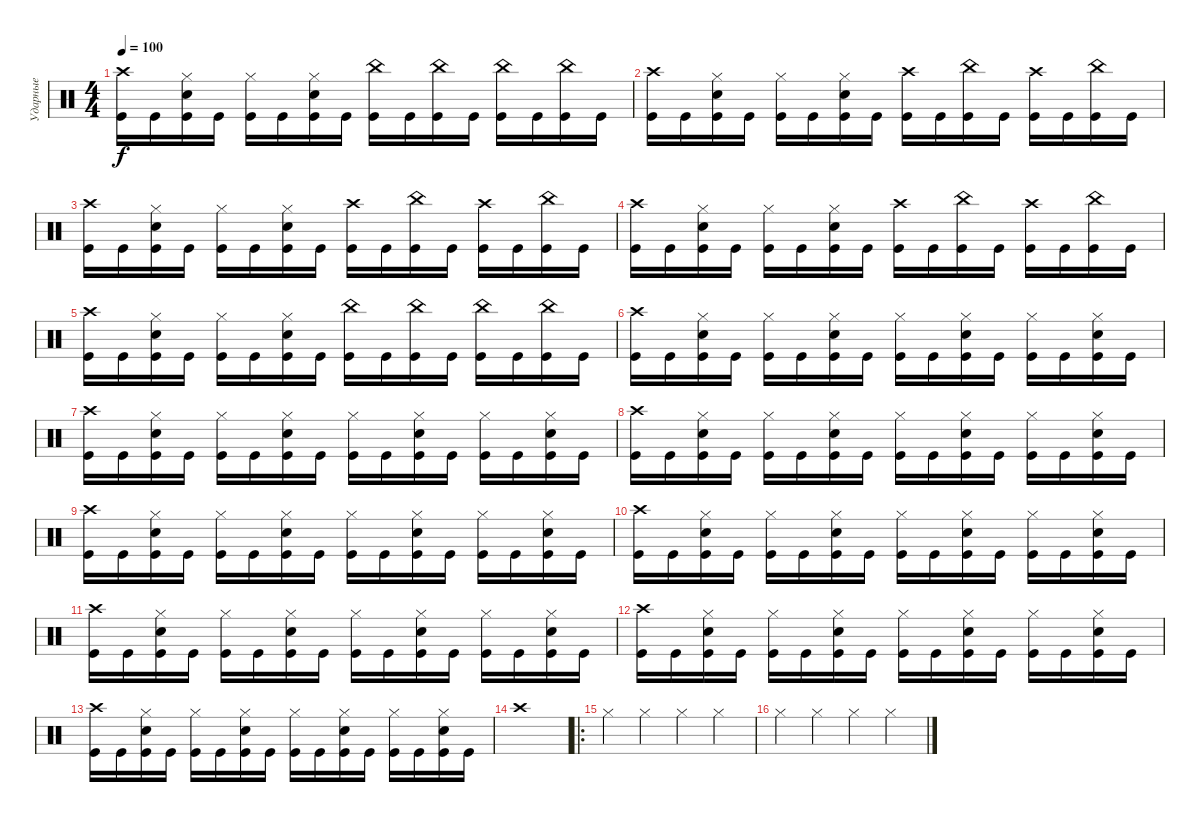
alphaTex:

\track ("Ударные" "Ударные") {instrument percussion}
\staff {score}
\articulation defaults
\ts (4 4)
\tempo 100
\clef neutral
\ks c
("Kick (hit)" "Crash high (hit)").16{dy f} "Kick (hit)".16 ("Kick (hit)" "Hi-Hat (closed)" "Snare (hit) 2").16 "Kick (hit)".16 ("Kick (hit)" "Hi-Hat (closed)").16 "Kick (hit)".16 ("Kick (hit)" "Hi-Hat (closed)" "Snare (hit) 2").16 "Kick (hit)".16 ("Kick (hit)" "China (hit)").16 "Kick (hit)".16 ("Kick (hit)" "China (hit)").16 "Kick (hit)".16 ("Kick (hit)" "China (hit)").16 "Kick (hit)".16 ("Kick (hit)" "China (hit)").16 "Kick (hit)".16 |
("Kick (hit)" "Crash high (hit)").16 "Kick (hit)".16 ("Kick (hit)" "Hi-Hat (closed)" "Snare (hit) 2").16 "Kick (hit)".16 ("Kick (hit)" "Hi-Hat (closed)").16 "Kick (hit)".16 ("Kick (hit)" "Hi-Hat (closed)" "Snare (hit) 2").16 "Kick (hit)".16 ("Kick (hit)" "Crash high (hit)").16 "Kick (hit)".16 ("Kick (hit)" "China (hit)").16 "Kick (hit)".16 ("Kick (hit)" "Crash high (hit)").16 "Kick (hit)".16 ("Kick (hit)" "China (hit)").16 "Kick (hit)".16 |
("Kick (hit)" "Crash high (hit)").16 "Kick (hit)".16 ("Kick (hit)" "Hi-Hat (closed)" "Snare (hit) 2").16 "Kick (hit)".16 ("Kick (hit)" "Hi-Hat (closed)").16 "Kick (hit)".16 ("Kick (hit)" "Hi-Hat (closed)" "Snare (hit) 2").16 "Kick (hit)".16 ("Kick (hit)" "Crash high (hit)").16 "Kick (hit)".16 ("Kick (hit)" "China (hit)").16 "Kick (hit)".16 ("Kick (hit)" "Crash high (hit)").16 "Kick (hit)".16 ("Kick (hit)" "China (hit)").16 "Kick (hit)".16 |
("Kick (hit)" "Crash high (hit)").16 "Kick (hit)".16 ("Kick (hit)" "Hi-Hat (closed)" "Snare (hit) 2").16 "Kick (hit)".16 ("Kick (hit)" "Hi-Hat (closed)").16 "Kick (hit)".16 ("Kick (hit)" "Hi-Hat (closed)" "Snare (hit) 2").16 "Kick (hit)".16 ("Kick (hit)" "Crash high (hit)").16 "Kick (hit)".16 ("Kick (hit)" "China (hit)").16 "Kick (hit)".16 ("Kick (hit)" "Crash high (hit)").16 "Kick (hit)".16 ("Kick (hit)" "China (hit)").16 "Kick (hit)".16 |
("Kick (hit)" "Crash high (hit)").16 "Kick (hit)".16 ("Kick (hit)" "Hi-Hat (closed)" "Snare (hit) 2").16 "Kick (hit)".16 ("Kick (hit)" "Hi-Hat (closed)").16 "Kick (hit)".16 ("Kick (hit)" "Hi-Hat (closed)" "Snare (hit) 2").16 "Kick (hit)".16 ("Kick (hit)" "China (hit)").16 "Kick (hit)".16 ("Kick (hit)" "China (hit)").16 "Kick (hit)".16 ("Kick (hit)" "China (hit)").16 "Kick (hit)".16 ("Kick (hit)" "China (hit)").16 "Kick (hit)".16 |
("Kick (hit)" "Crash high (hit)").16 "Kick (hit)".16 ("Kick (hit)" "Hi-Hat (closed)" "Snare (hit) 2").16 "Kick (hit)".16 ("Kick (hit)" "Hi-Hat (closed)").16 "Kick (hit)".16 ("Kick (hit)" "Hi-Hat (closed)" "Snare (hit) 2").16 "Kick (hit)".16 ("Kick (hit)" "Hi-Hat (closed)").16 "Kick (hit)".16 ("Kick (hit)" "Hi-Hat (closed)" "Snare (hit) 2").16 "Kick (hit)".16 ("Kick (hit)" "Hi-Hat (closed)").16 "Kick (hit)".16 ("Kick (hit)" "Hi-Hat (closed)" "Snare (hit) 2").16 "Kick (hit)".16 |
("Kick (hit)" "Crash high (hit)").16 "Kick (hit)".16 ("Kick (hit)" "Hi-Hat (closed)" "Snare (hit) 2").16 "Kick (hit)".16 ("Kick (hit)" "Hi-Hat (closed)").16 "Kick (hit)".16 ("Kick (hit)" "Hi-Hat (closed)" "Snare (hit) 2").16 "Kick (hit)".16 ("Kick (hit)" "Hi-Hat (closed)").16 "Kick (hit)".16 ("Kick (hit)" "Hi-Hat (closed)" "Snare (hit) 2").16 "Kick (hit)".16 ("Kick (hit)" "Hi-Hat (closed)").16 "Kick (hit)".16 ("Kick (hit)" "Hi-Hat (closed)" "Snare (hit) 2").16 "Kick (hit)".16 |
("Kick (hit)" "Crash high (hit)").16 "Kick (hit)".16 ("Kick (hit)" "Hi-Hat (closed)" "Snare (hit) 2").16 "Kick (hit)".16 ("Kick (hit)" "Hi-Hat (closed)").16 "Kick (hit)".16 ("Kick (hit)" "Hi-Hat (closed)" "Snare (hit) 2").16 "Kick (hit)".16 ("Kick (hit)" "Hi-Hat (closed)").16 "Kick (hit)".16 ("Kick (hit)" "Hi-Hat (closed)" "Snare (hit) 2").16 "Kick (hit)".16 ("Kick (hit)" "Hi-Hat (closed)").16 "Kick (hit)".16 ("Kick (hit)" "Hi-Hat (closed)" "Snare (hit) 2").16 "Kick (hit)".16 |
("Kick (hit)" "Crash high (hit)").16 "Kick (hit)".16 ("Kick (hit)" "Hi-Hat (closed)" "Snare (hit) 2").16 "Kick (hit)".16 ("Kick (hit)" "Hi-Hat (closed)").16 "Kick (hit)".16 ("Kick (hit)" "Hi-Hat (closed)" "Snare (hit) 2").16 "Kick (hit)".16 ("Kick (hit)" "Hi-Hat (closed)").16 "Kick (hit)".16 ("Kick (hit)" "Hi-Hat (closed)" "Snare (hit) 2").16 "Kick (hit)".16 ("Kick (hit)" "Hi-Hat (closed)").16 "Kick (hit)".16 ("Kick (hit)" "Hi-Hat (closed)" "Snare (hit) 2").16 "Kick (hit)".16 |
("Kick (hit)" "Crash high (hit)").16 "Kick (hit)".16 ("Kick (hit)" "Hi-Hat (closed)" "Snare (hit) 2").16 "Kick (hit)".16 ("Kick (hit)" "Hi-Hat (closed)").16 "Kick (hit)".16 ("Kick (hit)" "Hi-Hat (closed)" "Snare (hit) 2").16 "Kick (hit)".16 ("Kick (hit)" "Hi-Hat (closed)").16 "Kick (hit)".16 ("Kick (hit)" "Hi-Hat (closed)" "Snare (hit) 2").16 "Kick (hit)".16 ("Kick (hit)" "Hi-Hat (closed)").16 "Kick (hit)".16 ("Kick (hit)" "Hi-Hat (closed)" "Snare (hit) 2").16 "Kick (hit)".16 |
("Kick (hit)" "Crash high (hit)").16 "Kick (hit)".16 ("Kick (hit)" "Hi-Hat (closed)" "Snare (hit) 2").16 "Kick (hit)".16 ("Kick (hit)" "Hi-Hat (closed)").16 "Kick (hit)".16 ("Kick (hit)" "Hi-Hat (closed)" "Snare (hit) 2").16 "Kick (hit)".16 ("Kick (hit)" "Hi-Hat (closed)").16 "Kick (hit)".16 ("Kick (hit)" "Hi-Hat (closed)" "Snare (hit) 2").16 "Kick (hit)".16 ("Kick (hit)" "Hi-Hat (closed)").16 "Kick (hit)".16 ("Kick (hit)" "Hi-Hat (closed)" "Snare (hit) 2").16 "Kick (hit)".16 |
("Kick (hit)" "Crash high (hit)").16 "Kick (hit)".16 ("Kick (hit)" "Hi-Hat (closed)" "Snare (hit) 2").16 "Kick (hit)".16 ("Kick (hit)" "Hi-Hat (closed)").16 "Kick (hit)".16 ("Kick (hit)" "Hi-Hat (closed)" "Snare (hit) 2").16 "Kick (hit)".16 ("Kick (hit)" "Hi-Hat (closed)").16 "Kick (hit)".16 ("Kick (hit)" "Hi-Hat (closed)" "Snare (hit) 2").16 "Kick (hit)".16 ("Kick (hit)" "Hi-Hat (closed)").16 "Kick (hit)".16 ("Kick (hit)" "Hi-Hat (closed)" "Snare (hit) 2").16 "Kick (hit)".16 |
("Kick (hit)" "Crash high (hit)").16 "Kick (hit)".16 ("Kick (hit)" "Hi-Hat (closed)" "Snare (hit) 2").16 "Kick (hit)".16 ("Kick (hit)" "Hi-Hat (closed)").16 "Kick (hit)".16 ("Kick (hit)" "Hi-Hat (closed)" "Snare (hit) 2").16 "Kick (hit)".16 ("Kick (hit)" "Hi-Hat (closed)").16 "Kick (hit)".16 ("Kick (hit)" "Hi-Hat (closed)" "Snare (hit) 2").16 "Kick (hit)".16 ("Kick (hit)" "Hi-Hat (closed)").16 "Kick (hit)".16 ("Kick (hit)" "Hi-Hat (closed)" "Snare (hit) 2").16 "Kick (hit)".16 |
"Crash high (hit)".1 |
\ro "Hi-Hat (closed)".4 "Hi-Hat (closed)".4 "Hi-Hat (closed)".4 "Hi-Hat (closed)".4
|
"Hi-Hat (closed)".4 "Hi-Hat (closed)".4 "Hi-Hat (closed)".4 "Hi-Hat (closed)".4
